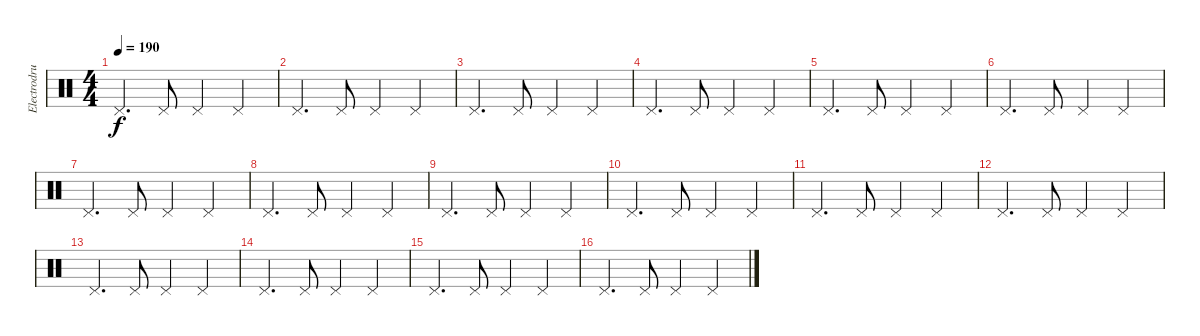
\track ("Electrodrums1" "Electrodru") {instrument percussion}
\staff {score}
\articulation defaults
\ts (4 4)
\tempo 190
\clef neutral
\ks c "Pedal Hi-Hat (hit)".4{d dy f} "Pedal Hi-Hat (hit)".8 "Pedal Hi-Hat (hit)".4 "Pedal Hi-Hat (hit)".4
|
"Pedal Hi-Hat (hit)".4{d} "Pedal Hi-Hat (hit)".8 "Pedal Hi-Hat (hit)".4 "Pedal Hi-Hat (hit)".4 |
"Pedal Hi-Hat (hit)".4{d} "Pedal Hi-Hat (hit)".8 "Pedal Hi-Hat (hit)".4 "Pedal Hi-Hat (hit)".4 |
"Pedal Hi-Hat (hit)".4{d} "Pedal Hi-Hat (hit)".8 "Pedal Hi-Hat (hit)".4 "Pedal Hi-Hat (hit)".4 |
"Pedal Hi-Hat (hit)".4{d} "Pedal Hi-Hat (hit)".8 "Pedal Hi-Hat (hit)".4 "Pedal Hi-Hat (hit)".4 |
"Pedal Hi-Hat (hit)".4{d} "Pedal Hi-Hat (hit)".8 "Pedal Hi-Hat (hit)".4 "Pedal Hi-Hat (hit)".4 |
"Pedal Hi-Hat (hit)".4{d} "Pedal Hi-Hat (hit)".8 "Pedal Hi-Hat (hit)".4 "Pedal Hi-Hat (hit)".4 |
"Pedal Hi-Hat (hit)".4{d} "Pedal Hi-Hat (hit)".8 "Pedal Hi-Hat (hit)".4 "Pedal Hi-Hat (hit)".4 |
"Pedal Hi-Hat (hit)".4{d} "Pedal Hi-Hat (hit)".8 "Pedal Hi-Hat (hit)".4 "Pedal Hi-Hat (hit)".4 |
"Pedal Hi-Hat (hit)".4{d} "Pedal Hi-Hat (hit)".8 "Pedal Hi-Hat (hit)".4 "Pedal Hi-Hat (hit)".4 |
"Pedal Hi-Hat (hit)".4{d} "Pedal Hi-Hat (hit)".8 "Pedal Hi-Hat (hit)".4 "Pedal Hi-Hat (hit)".4 |
"Pedal Hi-Hat (hit)".4{d} "Pedal Hi-Hat (hit)".8 "Pedal Hi-Hat (hit)".4 "Pedal Hi-Hat (hit)".4 |
"Pedal Hi-Hat (hit)".4{d} "Pedal Hi-Hat (hit)".8 "Pedal Hi-Hat (hit)".4 "Pedal Hi-Hat (hit)".4 |
"Pedal Hi-Hat (hit)".4{d} "Pedal Hi-Hat (hit)".8 "Pedal Hi-Hat (hit)".4 "Pedal Hi-Hat (hit)".4 |
"Pedal Hi-Hat (hit)".4{d} "Pedal Hi-Hat (hit)".8 "Pedal Hi-Hat (hit)".4 "Pedal Hi-Hat (hit)".4 |
"Pedal Hi-Hat (hit)".4{d} "Pedal Hi-Hat (hit)".8 "Pedal Hi-Hat (hit)".4 "Pedal Hi-Hat (hit)".4
